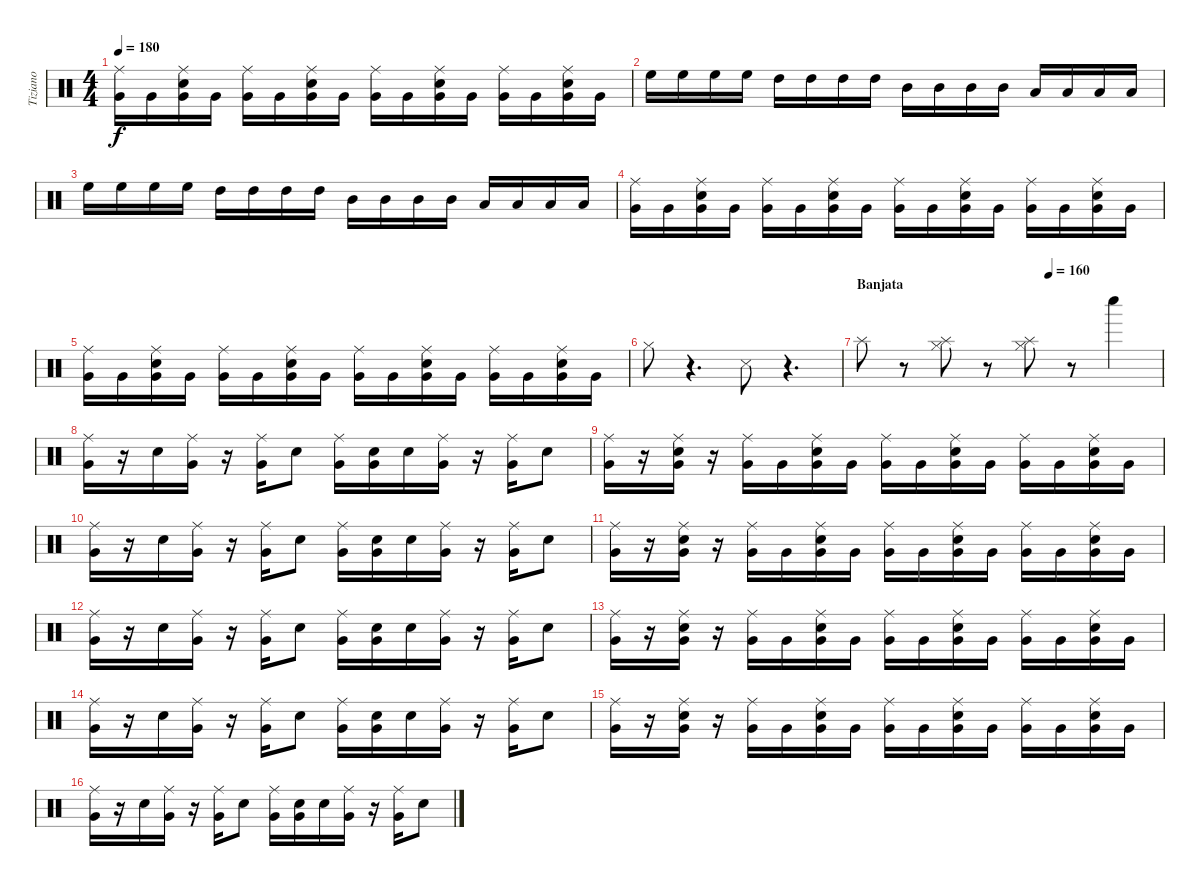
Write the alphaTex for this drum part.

\track ("Tiziano" "Tiziano") {instrument percussion}
\staff {score}
\articulation defaults
\ts (4 4)
\tempo 180
\clef neutral
\ks c
("Very Low Tom (hit)" "Ride (middle)").16{dy f} "Very Low Tom (hit)".16 ("Very Low Tom (hit)" "Snare (hit) 2" "Ride (middle)").16 "Very Low Tom (hit)".16 ("Very Low Tom (hit)" "Ride (middle)").16 "Very Low Tom (hit)".16 ("Very Low Tom (hit)" "Snare (hit) 2" "Ride (middle)").16 "Very Low Tom (hit)".16 ("Very Low Tom (hit)" "Ride (middle)").16 "Very Low Tom (hit)".16 ("Very Low Tom (hit)" "Snare (hit) 2" "Ride (middle)").16 "Very Low Tom (hit)".16 ("Very Low Tom (hit)" "Ride (middle)").16 "Very Low Tom (hit)".16 ("Very Low Tom (hit)" "Snare (hit) 2" "Ride (middle)").16 "Very Low Tom (hit)".16 |
"High Floor Tom (hit)".16 "High Floor Tom (hit)".16 "High Floor Tom (hit)".16 "High Floor Tom (hit)".16 "High Tom (hit)".16 "High Tom (hit)".16 "High Tom (hit)".16 "High Tom (hit)".16 "Mid Tom (hit)".16 "Mid Tom (hit)".16 "Mid Tom (hit)".16 "Mid Tom (hit)".16 "Low Tom (hit)".16 "Low Tom (hit)".16 "Low Tom (hit)".16 "Low Tom (hit)".16 |
"High Floor Tom (hit)".16 "High Floor Tom (hit)".16 "High Floor Tom (hit)".16 "High Floor Tom (hit)".16 "High Tom (hit)".16 "High Tom (hit)".16 "High Tom (hit)".16 "High Tom (hit)".16 "Mid Tom (hit)".16 "Mid Tom (hit)".16 "Mid Tom (hit)".16 "Mid Tom (hit)".16 "Low Tom (hit)".16 "Low Tom (hit)".16 "Low Tom (hit)".16 "Low Tom (hit)".16 |
("Very Low Tom (hit)" "Ride (middle)").16 "Very Low Tom (hit)".16 ("Very Low Tom (hit)" "Snare (hit) 2" "Ride (middle)").16 "Very Low Tom (hit)".16 ("Very Low Tom (hit)" "Ride (middle)").16 "Very Low Tom (hit)".16 ("Very Low Tom (hit)" "Snare (hit) 2" "Ride (middle)").16 "Very Low Tom (hit)".16 ("Very Low Tom (hit)" "Ride (middle)").16 "Very Low Tom (hit)".16 ("Very Low Tom (hit)" "Snare (hit) 2" "Ride (middle)").16 "Very Low Tom (hit)".16 ("Very Low Tom (hit)" "Ride (middle)").16 "Very Low Tom (hit)".16 ("Very Low Tom (hit)" "Snare (hit) 2" "Ride (middle)").16 "Very Low Tom (hit)".16 |
("Very Low Tom (hit)" "Ride (middle)").16 "Very Low Tom (hit)".16 ("Very Low Tom (hit)" "Snare (hit) 2" "Ride (middle)").16 "Very Low Tom (hit)".16 ("Very Low Tom (hit)" "Ride (middle)").16 "Very Low Tom (hit)".16 ("Very Low Tom (hit)" "Snare (hit) 2" "Ride (middle)").16 "Very Low Tom (hit)".16 ("Very Low Tom (hit)" "Ride (middle)").16 "Very Low Tom (hit)".16 ("Very Low Tom (hit)" "Snare (hit) 2" "Ride (middle)").16 "Very Low Tom (hit)".16 ("Very Low Tom (hit)" "Ride (middle)").16 "Very Low Tom (hit)".16 ("Very Low Tom (hit)" "Snare (hit) 2" "Ride (middle)").16 "Very Low Tom (hit)".16 |
"Hi-Hat (closed)".8 r.4{d} "Snare (side stick) 3".8 r.4{d} |
\section ("" "Banjata")
\tempo (160 0.625)
"Splash (hit)".8 r.8 ("Splash (hit)" "Hi-Hat (closed)").8 r.8 ("Splash (hit)" "Hi-Hat (closed)").8 r.8 "Whistle low (hit)".4 |
("Very Low Tom (hit)" "Ride (middle)").16 r.16 "Snare (hit) 2".16 ("Very Low Tom (hit)" "Ride (middle)").16 r.16 ("Very Low Tom (hit)" "Ride (middle)").16 "Snare (hit) 2".8 ("Very Low Tom (hit)" "Ride (middle)").16 ("Very Low Tom (hit)" "Snare (hit)").16 "Snare (hit) 2".16 ("Very Low Tom (hit)" "Ride (middle)").16 r.16 ("Very Low Tom (hit)" "Ride (middle)").16 "Snare (hit) 2".8 |
("Very Low Tom (hit)" "Ride (middle)").16 r.16 ("Very Low Tom (hit)" "Snare (hit) 2" "Ride (middle)").16 r.16 ("Very Low Tom (hit)" "Ride (middle)").16 "Very Low Tom (hit)".16 ("Very Low Tom (hit)" "Snare (hit) 2" "Ride (middle)").16 "Very Low Tom (hit)".16 ("Very Low Tom (hit)" "Ride (middle)").16 "Very Low Tom (hit)".16 ("Very Low Tom (hit)" "Snare (hit) 2" "Ride (middle)").16 "Very Low Tom (hit)".16 ("Very Low Tom (hit)" "Ride (middle)").16 "Very Low Tom (hit)".16 ("Very Low Tom (hit)" "Snare (hit) 2" "Ride (middle)").16 "Very Low Tom (hit)".16 |
("Very Low Tom (hit)" "Ride (middle)").16 r.16 "Snare (hit) 2".16 ("Very Low Tom (hit)" "Ride (middle)").16 r.16 ("Very Low Tom (hit)" "Ride (middle)").16 "Snare (hit) 2".8 ("Very Low Tom (hit)" "Ride (middle)").16 ("Very Low Tom (hit)" "Snare (hit)").16 "Snare (hit) 2".16 ("Very Low Tom (hit)" "Ride (middle)").16 r.16 ("Very Low Tom (hit)" "Ride (middle)").16 "Snare (hit) 2".8 |
("Very Low Tom (hit)" "Ride (middle)").16 r.16 ("Very Low Tom (hit)" "Snare (hit) 2" "Ride (middle)").16 r.16 ("Very Low Tom (hit)" "Ride (middle)").16 "Very Low Tom (hit)".16 ("Very Low Tom (hit)" "Snare (hit) 2" "Ride (middle)").16 "Very Low Tom (hit)".16 ("Very Low Tom (hit)" "Ride (middle)").16 "Very Low Tom (hit)".16 ("Very Low Tom (hit)" "Snare (hit) 2" "Ride (middle)").16 "Very Low Tom (hit)".16 ("Very Low Tom (hit)" "Ride (middle)").16 "Very Low Tom (hit)".16 ("Very Low Tom (hit)" "Snare (hit) 2" "Ride (middle)").16 "Very Low Tom (hit)".16 |
("Very Low Tom (hit)" "Ride (middle)").16 r.16 "Snare (hit) 2".16 ("Very Low Tom (hit)" "Ride (middle)").16 r.16 ("Very Low Tom (hit)" "Ride (middle)").16 "Snare (hit) 2".8 ("Very Low Tom (hit)" "Ride (middle)").16 ("Very Low Tom (hit)" "Snare (hit)").16 "Snare (hit) 2".16 ("Very Low Tom (hit)" "Ride (middle)").16 r.16 ("Very Low Tom (hit)" "Ride (middle)").16 "Snare (hit) 2".8 |
("Very Low Tom (hit)" "Ride (middle)").16 r.16 ("Very Low Tom (hit)" "Snare (hit) 2" "Ride (middle)").16 r.16 ("Very Low Tom (hit)" "Ride (middle)").16 "Very Low Tom (hit)".16 ("Very Low Tom (hit)" "Snare (hit) 2" "Ride (middle)").16 "Very Low Tom (hit)".16 ("Very Low Tom (hit)" "Ride (middle)").16 "Very Low Tom (hit)".16 ("Very Low Tom (hit)" "Snare (hit) 2" "Ride (middle)").16 "Very Low Tom (hit)".16 ("Very Low Tom (hit)" "Ride (middle)").16 "Very Low Tom (hit)".16 ("Very Low Tom (hit)" "Snare (hit) 2" "Ride (middle)").16 "Very Low Tom (hit)".16 |
("Very Low Tom (hit)" "Ride (middle)").16 r.16 "Snare (hit) 2".16 ("Very Low Tom (hit)" "Ride (middle)").16 r.16 ("Very Low Tom (hit)" "Ride (middle)").16 "Snare (hit) 2".8 ("Very Low Tom (hit)" "Ride (middle)").16 ("Very Low Tom (hit)" "Snare (hit)").16 "Snare (hit) 2".16 ("Very Low Tom (hit)" "Ride (middle)").16 r.16 ("Very Low Tom (hit)" "Ride (middle)").16 "Snare (hit) 2".8 |
("Very Low Tom (hit)" "Ride (middle)").16 r.16 ("Very Low Tom (hit)" "Snare (hit) 2" "Ride (middle)").16 r.16 ("Very Low Tom (hit)" "Ride (middle)").16 "Very Low Tom (hit)".16 ("Very Low Tom (hit)" "Snare (hit) 2" "Ride (middle)").16 "Very Low Tom (hit)".16 ("Very Low Tom (hit)" "Ride (middle)").16 "Very Low Tom (hit)".16 ("Very Low Tom (hit)" "Snare (hit) 2" "Ride (middle)").16 "Very Low Tom (hit)".16 ("Very Low Tom (hit)" "Ride (middle)").16 "Very Low Tom (hit)".16 ("Very Low Tom (hit)" "Snare (hit) 2" "Ride (middle)").16 "Very Low Tom (hit)".16 |
("Very Low Tom (hit)" "Ride (middle)").16 r.16 "Snare (hit) 2".16 ("Very Low Tom (hit)" "Ride (middle)").16 r.16 ("Very Low Tom (hit)" "Ride (middle)").16 "Snare (hit) 2".8 ("Very Low Tom (hit)" "Ride (middle)").16 ("Very Low Tom (hit)" "Snare (hit)").16 "Snare (hit) 2".16 ("Very Low Tom (hit)" "Ride (middle)").16 r.16 ("Very Low Tom (hit)" "Ride (middle)").16 "Snare (hit) 2".8
